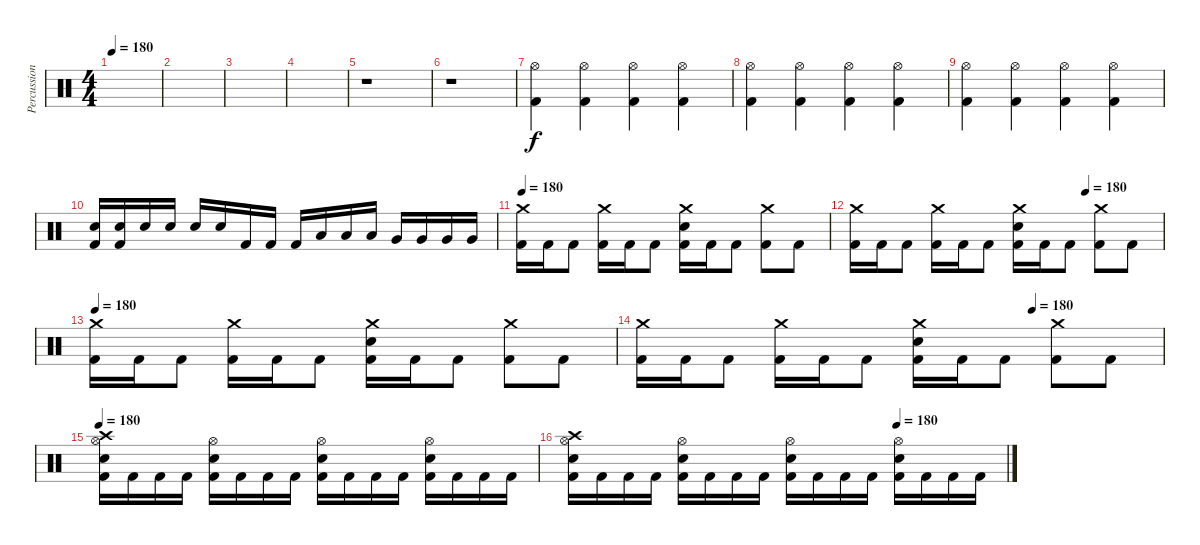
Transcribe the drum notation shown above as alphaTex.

\track ("Percussion" "Percussion") {instrument percussion}
\staff {score}
\articulation defaults
\ts (4 4)
\tempo 180
\clef neutral
\ks c
|
|
|
|
r.1 |
r.1 |
("Hi-Hat (open)" "Kick (hit) 2").4 ("Hi-Hat (open)" "Kick (hit) 2").4 ("Hi-Hat (open)" "Kick (hit) 2").4 ("Hi-Hat (open)" "Kick (hit) 2").4 |
("Hi-Hat (open)" "Kick (hit) 2").4 ("Hi-Hat (open)" "Kick (hit) 2").4 ("Hi-Hat (open)" "Kick (hit) 2").4 ("Hi-Hat (open)" "Kick (hit) 2").4 |
("Hi-Hat (open)" "Kick (hit) 2").4 ("Hi-Hat (open)" "Kick (hit) 2").4 ("Hi-Hat (open)" "Kick (hit) 2").4 ("Hi-Hat (open)" "Kick (hit) 2").4 |
("Electric Snare (hit)" "Kick (hit) 2").16 ("Electric Snare (hit)" "Kick (hit) 2").16 "Electric Snare (hit)".16 "Electric Snare (hit)".16 "Electric Snare (hit)".16 "Electric Snare (hit)".16 "Kick (hit) 2".16 "Kick (hit) 2".16 "Kick (hit) 2".16 "Low Tom (hit)".16 "Low Tom (hit)".16 "Low Tom (hit)".16 "Very Low Tom (hit)".16 "Very Low Tom (hit)".16 "Very Low Tom (hit)".16 "Very Low Tom (hit)".16 |
\tempo 180
("Crash medium (hit)" "Kick (hit) 2").16 "Kick (hit) 2".16 "Kick (hit) 2".8 ("Crash medium (hit)" "Kick (hit) 2").16 "Kick (hit) 2".16 "Kick (hit) 2".8 ("Crash medium (hit)" "Electric Snare (hit)" "Kick (hit) 2").16 "Kick (hit) 2".16 "Kick (hit) 2".8 ("Crash medium (hit)" "Kick (hit) 2").8 "Kick (hit) 2".8 |
\tempo (180 0.75)
("Crash medium (hit)" "Kick (hit) 2").16 "Kick (hit) 2".16 "Kick (hit) 2".8 ("Crash medium (hit)" "Kick (hit) 2").16 "Kick (hit) 2".16 "Kick (hit) 2".8 ("Crash medium (hit)" "Electric Snare (hit)" "Kick (hit) 2").16 "Kick (hit) 2".16 "Kick (hit) 2".8 ("Crash medium (hit)" "Kick (hit) 2").8 "Kick (hit) 2".8 |
\tempo 180
("Crash medium (hit)" "Kick (hit) 2").16 "Kick (hit) 2".16 "Kick (hit) 2".8 ("Crash medium (hit)" "Kick (hit) 2").16 "Kick (hit) 2".16 "Kick (hit) 2".8 ("Crash medium (hit)" "Electric Snare (hit)" "Kick (hit) 2").16 "Kick (hit) 2".16 "Kick (hit) 2".8 ("Crash medium (hit)" "Kick (hit) 2").8 "Kick (hit) 2".8 |
\tempo (180 0.75)
("Crash medium (hit)" "Kick (hit) 2").16 "Kick (hit) 2".16 "Kick (hit) 2".8 ("Crash medium (hit)" "Kick (hit) 2").16 "Kick (hit) 2".16 "Kick (hit) 2".8 ("Crash medium (hit)" "Electric Snare (hit)" "Kick (hit) 2").16 "Kick (hit) 2".16 "Kick (hit) 2".8 ("Crash medium (hit)" "Kick (hit) 2").8 "Kick (hit) 2".8 |
\tempo 180
("Crash high (hit)" "Hi-Hat (open)" "Electric Snare (hit)" "Kick (hit) 2").16 "Kick (hit) 2".16 "Kick (hit) 2".16 "Kick (hit) 2".16 ("Hi-Hat (open)" "Electric Snare (hit)" "Kick (hit) 2").16 "Kick (hit) 2".16 "Kick (hit) 2".16 "Kick (hit) 2".16 ("Hi-Hat (open)" "Electric Snare (hit)" "Kick (hit) 2").16 "Kick (hit) 2".16 "Kick (hit) 2".16 "Kick (hit) 2".16 ("Hi-Hat (open)" "Electric Snare (hit)" "Kick (hit) 2").16 "Kick (hit) 2".16 "Kick (hit) 2".16 "Kick (hit) 2".16 |
\tempo (180 0.75)
("Crash high (hit)" "Hi-Hat (open)" "Electric Snare (hit)" "Kick (hit) 2").16 "Kick (hit) 2".16 "Kick (hit) 2".16 "Kick (hit) 2".16 ("Hi-Hat (open)" "Electric Snare (hit)" "Kick (hit) 2").16 "Kick (hit) 2".16 "Kick (hit) 2".16 "Kick (hit) 2".16 ("Hi-Hat (open)" "Electric Snare (hit)" "Kick (hit) 2").16 "Kick (hit) 2".16 "Kick (hit) 2".16 "Kick (hit) 2".16 ("Hi-Hat (open)" "Electric Snare (hit)" "Kick (hit) 2").16 "Kick (hit) 2".16 "Kick (hit) 2".16 "Kick (hit) 2".16
